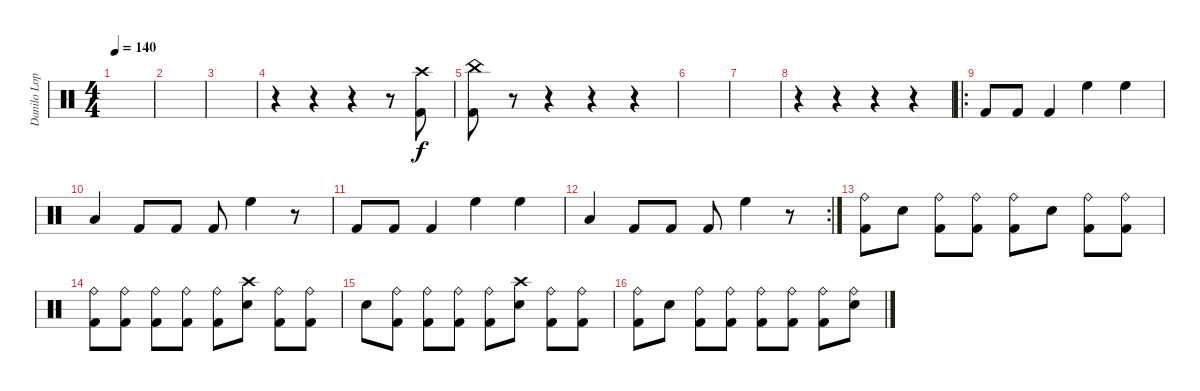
\track ("Danilo Lopes" "Danilo Lop") {instrument percussion}
\staff {score}
\articulation defaults
\ts (4 4)
\tempo 140
\clef neutral
\ks c
|
|
|
r.4 r.4 r.4 r.8 ("Crash high (hit)" "Kick (hit) 2").8 |
("China (hit)" "Kick (hit) 2").8 r.8 r.4 r.4 r.4 |
|
|
r.4 r.4 r.4 r.4 |
\ro "Kick (hit) 2".8{volume 16} "Kick (hit) 2".8 "Kick (hit) 2".4 "High Floor Tom (hit)".4 "High Floor Tom (hit)".4
|
"Low Tom (hit)".4 "Kick (hit) 2".8 "Kick (hit) 2".8 "Kick (hit) 2".8 "High Floor Tom (hit)".4 r.8 |
"Kick (hit) 2".8 "Kick (hit) 2".8 "Kick (hit) 2".4 "High Floor Tom (hit)".4 "High Floor Tom (hit)".4 |
\rc 2 "Low Tom (hit)".4 "Kick (hit) 2".8 "Kick (hit) 2".8 "Kick (hit) 2".8 "High Floor Tom (hit)".4
r.8 |
("Ride (bell)" "Kick (hit) 2").8{volume 14} "Snare (hit) 2".8 ("Ride (bell)" "Kick (hit) 2").8 ("Ride (bell)" "Kick (hit) 2").8 ("Ride (bell)" "Kick (hit) 2").8 "Snare (hit) 2".8 ("Ride (bell)" "Kick (hit) 2").8 ("Ride (bell)" "Kick (hit) 2").8 |
("Ride (bell)" "Kick (hit) 2").8 ("Ride (bell)" "Kick (hit) 2").8 ("Ride (bell)" "Kick (hit) 2").8 ("Ride (bell)" "Kick (hit) 2").8 ("Ride (bell)" "Kick (hit) 2").8 ("Crash high (hit)" "Snare (hit) 2").8 ("Ride (bell)" "Kick (hit) 2").8 ("Ride (bell)" "Kick (hit) 2").8 |
"Snare (hit) 2".8 ("Ride (bell)" "Kick (hit) 2").8 ("Ride (bell)" "Kick (hit) 2").8 ("Ride (bell)" "Kick (hit) 2").8 ("Ride (bell)" "Kick (hit) 2").8 ("Crash high (hit)" "Snare (hit) 2").8 ("Ride (bell)" "Kick (hit) 2").8 ("Ride (bell)" "Kick (hit) 2").8 |
("Ride (bell)" "Kick (hit) 2").8 "Snare (hit) 2".8 ("Ride (bell)" "Kick (hit) 2").8 ("Ride (bell)" "Kick (hit) 2").8 ("Ride (bell)" "Kick (hit) 2").8 ("Ride (bell)" "Kick (hit) 2").8 ("Ride (bell)" "Kick (hit) 2").8 ("Ride (bell)" "Snare (hit) 2").8
